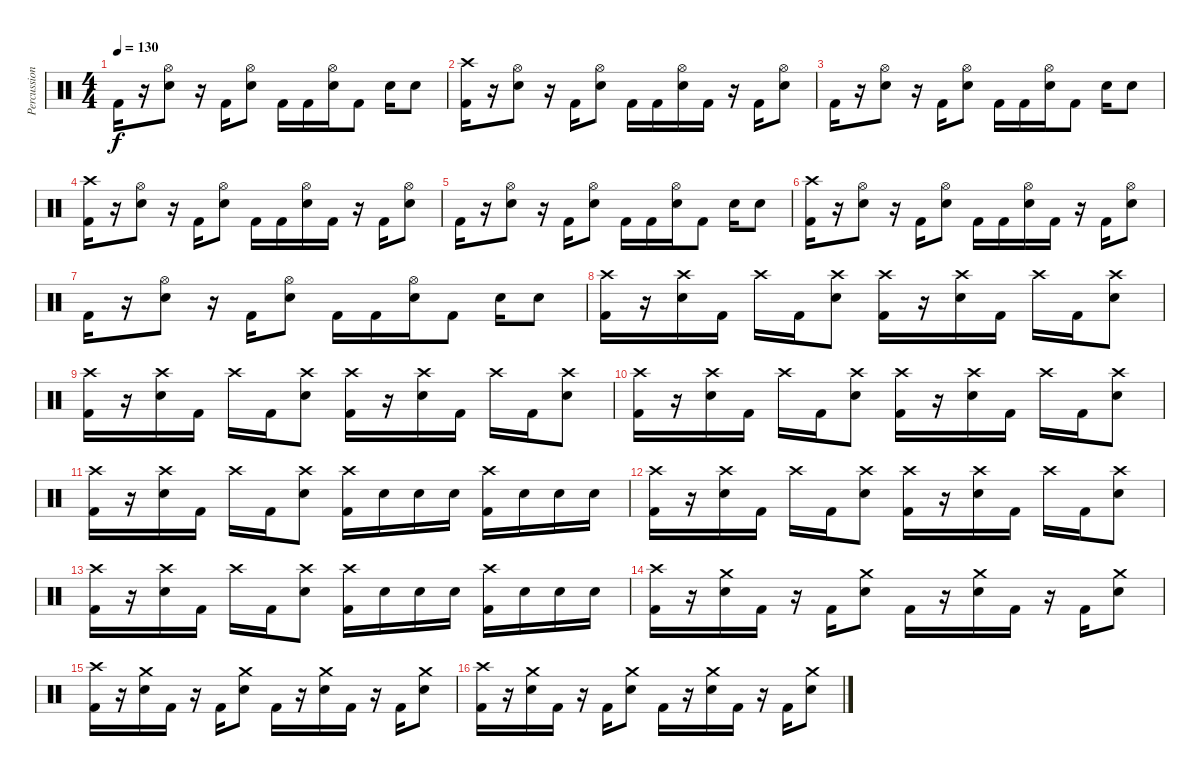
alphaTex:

\track ("Percussion" "Percussion") {instrument percussion}
\staff {score}
\articulation defaults
\ts (4 4)
\tempo 130
\clef neutral
\ks c "Kick (hit) 2".16{dy f}
r.16 ("Electric Snare (hit)" "Hi-Hat (open)").8 r.16 "Kick (hit) 2".16 ("Electric Snare (hit)" "Hi-Hat (open)").8 "Kick (hit) 2".16 "Kick (hit) 2".16 ("Electric Snare (hit)" "Hi-Hat (open)").16 "Kick (hit) 2".8 "Electric Snare (hit)".16 "Electric Snare (hit)".8 |
("Kick (hit) 2" "Crash high (hit)").16 r.16 ("Electric Snare (hit)" "Hi-Hat (open)").8 r.16 "Kick (hit) 2".16 ("Electric Snare (hit)" "Hi-Hat (open)").8 "Kick (hit) 2".16 "Kick (hit) 2".16 ("Electric Snare (hit)" "Hi-Hat (open)").16 "Kick (hit) 2".16 r.16 "Kick (hit) 2".16 ("Electric Snare (hit)" "Hi-Hat (open)").8 |
"Kick (hit) 2".16 r.16 ("Electric Snare (hit)" "Hi-Hat (open)").8 r.16 "Kick (hit) 2".16 ("Electric Snare (hit)" "Hi-Hat (open)").8 "Kick (hit) 2".16 "Kick (hit) 2".16 ("Electric Snare (hit)" "Hi-Hat (open)").16 "Kick (hit) 2".8 "Electric Snare (hit)".16 "Electric Snare (hit)".8 |
("Kick (hit) 2" "Crash high (hit)").16 r.16 ("Electric Snare (hit)" "Hi-Hat (open)").8 r.16 "Kick (hit) 2".16 ("Electric Snare (hit)" "Hi-Hat (open)").8 "Kick (hit) 2".16 "Kick (hit) 2".16 ("Electric Snare (hit)" "Hi-Hat (open)").16 "Kick (hit) 2".16 r.16 "Kick (hit) 2".16 ("Electric Snare (hit)" "Hi-Hat (open)").8 |
"Kick (hit) 2".16 r.16 ("Electric Snare (hit)" "Hi-Hat (open)").8 r.16 "Kick (hit) 2".16 ("Electric Snare (hit)" "Hi-Hat (open)").8 "Kick (hit) 2".16 "Kick (hit) 2".16 ("Electric Snare (hit)" "Hi-Hat (open)").16 "Kick (hit) 2".8 "Electric Snare (hit)".16 "Electric Snare (hit)".8 |
("Kick (hit) 2" "Crash high (hit)").16 r.16 ("Electric Snare (hit)" "Hi-Hat (open)").8 r.16 "Kick (hit) 2".16 ("Electric Snare (hit)" "Hi-Hat (open)").8 "Kick (hit) 2".16 "Kick (hit) 2".16 ("Electric Snare (hit)" "Hi-Hat (open)").16 "Kick (hit) 2".16 r.16 "Kick (hit) 2".16 ("Electric Snare (hit)" "Hi-Hat (open)").8 |
"Kick (hit) 2".16 r.16 ("Electric Snare (hit)" "Hi-Hat (open)").8 r.16 "Kick (hit) 2".16 ("Electric Snare (hit)" "Hi-Hat (open)").8 "Kick (hit) 2".16 "Kick (hit) 2".16 ("Electric Snare (hit)" "Hi-Hat (open)").16 "Kick (hit) 2".8 "Electric Snare (hit)".16 "Electric Snare (hit)".8 |
("Kick (hit) 2" "Crash high (hit)").16 r.16 ("Electric Snare (hit)" "Crash high (hit)").16 "Kick (hit) 2".16 "Crash high (hit)".16 "Kick (hit) 2".16 ("Electric Snare (hit)" "Crash high (hit)").8 ("Kick (hit) 2" "Crash high (hit)").16 r.16 ("Electric Snare (hit)" "Crash high (hit)").16 "Kick (hit) 2".16 "Crash high (hit)".16 "Kick (hit) 2".16 ("Electric Snare (hit)" "Crash high (hit)").8 |
("Kick (hit) 2" "Crash high (hit)").16 r.16 ("Electric Snare (hit)" "Crash high (hit)").16 "Kick (hit) 2".16 "Crash high (hit)".16 "Kick (hit) 2".16 ("Electric Snare (hit)" "Crash high (hit)").8 ("Kick (hit) 2" "Crash high (hit)").16 r.16 ("Electric Snare (hit)" "Crash high (hit)").16 "Kick (hit) 2".16 "Crash high (hit)".16 "Kick (hit) 2".16 ("Electric Snare (hit)" "Crash high (hit)").8 |
("Kick (hit) 2" "Crash high (hit)").16 r.16 ("Electric Snare (hit)" "Crash high (hit)").16 "Kick (hit) 2".16 "Crash high (hit)".16 "Kick (hit) 2".16 ("Electric Snare (hit)" "Crash high (hit)").8 ("Kick (hit) 2" "Crash high (hit)").16 r.16 ("Electric Snare (hit)" "Crash high (hit)").16 "Kick (hit) 2".16 "Crash high (hit)".16 "Kick (hit) 2".16 ("Electric Snare (hit)" "Crash high (hit)").8 |
("Kick (hit) 2" "Crash high (hit)").16 r.16 ("Electric Snare (hit)" "Crash high (hit)").16 "Kick (hit) 2".16 "Crash high (hit)".16 "Kick (hit) 2".16 ("Electric Snare (hit)" "Crash high (hit)").8 ("Kick (hit) 2" "Crash high (hit)").16 "Electric Snare (hit)".16 "Electric Snare (hit)".16 "Electric Snare (hit)".16 ("Kick (hit) 2" "Crash high (hit)").16 "Electric Snare (hit)".16 "Electric Snare (hit)".16 "Electric Snare (hit)".16 |
("Kick (hit) 2" "Crash high (hit)").16 r.16 ("Electric Snare (hit)" "Crash high (hit)").16 "Kick (hit) 2".16 "Crash high (hit)".16 "Kick (hit) 2".16 ("Electric Snare (hit)" "Crash high (hit)").8 ("Kick (hit) 2" "Crash high (hit)").16 r.16 ("Electric Snare (hit)" "Crash high (hit)").16 "Kick (hit) 2".16 "Crash high (hit)".16 "Kick (hit) 2".16 ("Electric Snare (hit)" "Crash high (hit)").8 |
("Kick (hit) 2" "Crash high (hit)").16 r.16 ("Electric Snare (hit)" "Crash high (hit)").16 "Kick (hit) 2".16 "Crash high (hit)".16 "Kick (hit) 2".16 ("Electric Snare (hit)" "Crash high (hit)").8 ("Kick (hit) 2" "Crash high (hit)").16 "Electric Snare (hit)".16 "Electric Snare (hit)".16 "Electric Snare (hit)".16 ("Kick (hit) 2" "Crash high (hit)").16 "Electric Snare (hit)".16 "Electric Snare (hit)".16 "Electric Snare (hit)".16 |
("Kick (hit) 2" "Crash high (hit)").16 r.16 ("Electric Snare (hit)" "Crash medium (hit)").16 "Kick (hit) 2".16 r.16 "Kick (hit) 2".16 ("Electric Snare (hit)" "Crash medium (hit)").8 "Kick (hit) 2".16 r.16 ("Electric Snare (hit)" "Crash medium (hit)").16 "Kick (hit) 2".16 r.16 "Kick (hit) 2".16 ("Electric Snare (hit)" "Crash medium (hit)").8 |
("Kick (hit) 2" "Crash high (hit)").16 r.16 ("Electric Snare (hit)" "Crash medium (hit)").16 "Kick (hit) 2".16 r.16 "Kick (hit) 2".16 ("Electric Snare (hit)" "Crash medium (hit)").8 "Kick (hit) 2".16 r.16 ("Electric Snare (hit)" "Crash medium (hit)").16 "Kick (hit) 2".16 r.16 "Kick (hit) 2".16 ("Electric Snare (hit)" "Crash medium (hit)").8 |
("Kick (hit) 2" "Crash high (hit)").16 r.16 ("Electric Snare (hit)" "Crash medium (hit)").16 "Kick (hit) 2".16 r.16 "Kick (hit) 2".16 ("Electric Snare (hit)" "Crash medium (hit)").8 "Kick (hit) 2".16 r.16 ("Electric Snare (hit)" "Crash medium (hit)").16 "Kick (hit) 2".16 r.16 "Kick (hit) 2".16 ("Electric Snare (hit)" "Crash medium (hit)").8
